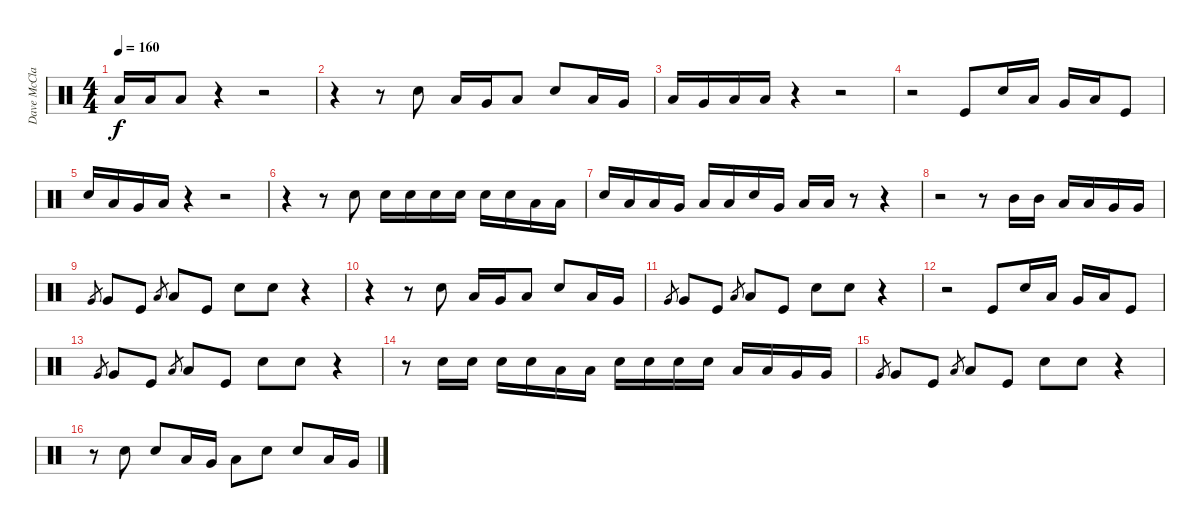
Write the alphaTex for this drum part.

\track ("Dave McClain" "Dave McCla") {instrument percussion}
\staff {score}
\articulation defaults
\ts (4 4)
\tempo 160
\clef neutral
\ks c "Low Floor Tom (hit)".16{dy f} "Low Floor Tom (hit)".16 "Low Floor Tom (hit)".8
r.4 r.2 |
r.4 r.8 "Electric Snare (hit)".8 "Low Tom (hit)".16 "Very Low Tom (hit)".16 "Low Floor Tom (hit)".8 "Electric Snare (hit)".8 "Low Tom (hit)".16 "Very Low Tom (hit)".16 |
"Low Tom (hit)".16 "Very Low Tom (hit)".16 "Low Floor Tom (hit)".16 "Low Floor Tom (hit)".16 r.4 r.2 |
r.2 "Kick (hit)".8 "Electric Snare (hit)".16 "Low Tom (hit)".16 "Very Low Tom (hit)".16 "Low Floor Tom (hit)".16 "Kick (hit)".8 |
"Electric Snare (hit)".16 "Low Tom (hit)".16 "Very Low Tom (hit)".16 "Low Floor Tom (hit)".16 r.4 r.2 |
r.4 r.8 "Electric Snare (hit)".8 "Electric Snare (hit)".16 "Electric Snare (hit)".16 "Electric Snare (hit)".16 "Electric Snare (hit)".16 "Electric Snare (hit)".16 "Electric Snare (hit)".16 "Low Tom (hit)".16 "Low Tom (hit)".16 |
"Electric Snare (hit)".16 "Low Tom (hit)".16 "Low Tom (hit)".16 "Very Low Tom (hit)".16 "Low Floor Tom (hit)".16 "Low Floor Tom (hit)".16 "Electric Snare (hit)".16 "Very Low Tom (hit)".16 "Low Floor Tom (hit)".16 "Low Floor Tom (hit)".16 r.8 r.4 |
r.2 r.8 "Mid Tom (hit)".16 "Mid Tom (hit)".16 "Low Tom (hit)".16 "Low Tom (hit)".16 "Very Low Tom (hit)".16 "Very Low Tom (hit)".16 |
"Very Low Tom (hit)".8{gr} "Very Low Tom (hit)".8 "Kick (hit)".8 "Low Floor Tom (hit)".8{gr} "Low Floor Tom (hit)".8 "Kick (hit)".8 "Electric Snare (hit)".8 "Electric Snare (hit)".8 r.4 |
r.4 r.8 "Electric Snare (hit)".8 "Low Tom (hit)".16 "Very Low Tom (hit)".16 "Low Floor Tom (hit)".8 "Electric Snare (hit)".8 "Low Tom (hit)".16 "Very Low Tom (hit)".16 |
"Very Low Tom (hit)".8{gr} "Very Low Tom (hit)".8 "Kick (hit)".8 "Low Floor Tom (hit)".8{gr} "Low Floor Tom (hit)".8 "Kick (hit)".8 "Electric Snare (hit)".8 "Electric Snare (hit)".8 r.4 |
r.2 "Kick (hit)".8 "Electric Snare (hit)".16 "Low Tom (hit)".16 "Very Low Tom (hit)".16 "Low Floor Tom (hit)".16 "Kick (hit)".8 |
"Very Low Tom (hit)".8{gr} "Very Low Tom (hit)".8 "Kick (hit)".8 "Low Floor Tom (hit)".8{gr} "Low Floor Tom (hit)".8 "Kick (hit)".8 "Electric Snare (hit)".8 "Electric Snare (hit)".8 r.4 |
r.8 "Electric Snare (hit)".16 "Electric Snare (hit)".16 "Electric Snare (hit)".16 "Electric Snare (hit)".16 "Low Tom (hit)".16 "Low Tom (hit)".16 "Electric Snare (hit)".16 "Electric Snare (hit)".16 "Electric Snare (hit)".16 "Electric Snare (hit)".16 "Low Tom (hit)".16 "Low Tom (hit)".16 "Very Low Tom (hit)".16 "Very Low Tom (hit)".16 |
"Very Low Tom (hit)".8{gr} "Very Low Tom (hit)".8 "Kick (hit)".8 "Low Floor Tom (hit)".8{gr} "Low Floor Tom (hit)".8 "Kick (hit)".8 "Electric Snare (hit)".8 "Electric Snare (hit)".8 r.4 |
r.8 "Electric Snare (hit)".8 "Electric Snare (hit)".8 "Low Tom (hit)".16 "Very Low Tom (hit)".16 "Low Floor Tom (hit)".8 "Electric Snare (hit)".8 "Electric Snare (hit)".8 "Low Tom (hit)".16 "Very Low Tom (hit)".16
